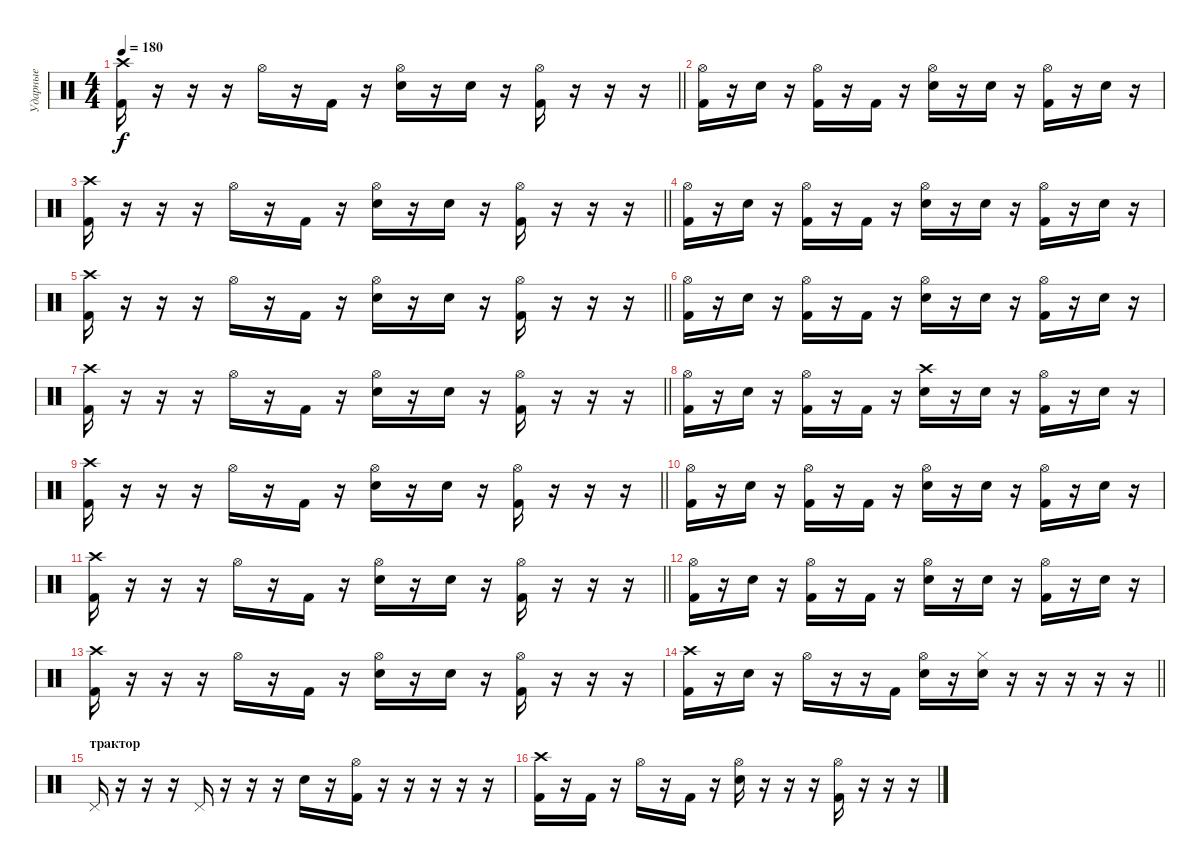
\track ("Ударные" "Ударные") {instrument percussion}
\staff {score}
\articulation defaults
\ts (4 4)
\tempo 180
\clef neutral
\barLineRight lightlight
\ks c
("Crash high (hit)" "Kick (hit) 2").16{dy f} r.16 r.16 r.16 "Hi-Hat (open)".16 r.16 "Kick (hit) 2".16 r.16 ("Hi-Hat (open)" "Electric Snare (hit)").16 r.16 "Electric Snare (hit)".16 r.16 ("Hi-Hat (open)" "Kick (hit) 2").16 r.16 r.16 r.16 |
("Hi-Hat (open)" "Kick (hit) 2").16 r.16 "Electric Snare (hit)".16 r.16 ("Hi-Hat (open)" "Kick (hit) 2").16 r.16 "Kick (hit) 2".16 r.16 ("Hi-Hat (open)" "Electric Snare (hit)").16 r.16 "Electric Snare (hit)".16 r.16 ("Hi-Hat (open)" "Kick (hit) 2").16 r.16 "Electric Snare (hit)".16 r.16 |
\barLineRight lightlight
("Crash high (hit)" "Kick (hit) 2").16 r.16 r.16 r.16 "Hi-Hat (open)".16 r.16 "Kick (hit) 2".16 r.16 ("Hi-Hat (open)" "Electric Snare (hit)").16 r.16 "Electric Snare (hit)".16 r.16 ("Hi-Hat (open)" "Kick (hit) 2").16 r.16 r.16 r.16 |
("Hi-Hat (open)" "Kick (hit) 2").16 r.16 "Electric Snare (hit)".16 r.16 ("Hi-Hat (open)" "Kick (hit) 2").16 r.16 "Kick (hit) 2".16 r.16 ("Hi-Hat (open)" "Electric Snare (hit)").16 r.16 "Electric Snare (hit)".16 r.16 ("Hi-Hat (open)" "Kick (hit) 2").16 r.16 "Electric Snare (hit)".16 r.16 |
\barLineRight lightlight
("Crash high (hit)" "Kick (hit) 2").16 r.16 r.16 r.16 "Hi-Hat (open)".16 r.16 "Kick (hit) 2".16 r.16 ("Hi-Hat (open)" "Electric Snare (hit)").16 r.16 "Electric Snare (hit)".16 r.16 ("Hi-Hat (open)" "Kick (hit) 2").16 r.16 r.16 r.16 |
("Hi-Hat (open)" "Kick (hit) 2").16 r.16 "Electric Snare (hit)".16 r.16 ("Hi-Hat (open)" "Kick (hit) 2").16 r.16 "Kick (hit) 2".16 r.16 ("Hi-Hat (open)" "Electric Snare (hit)").16 r.16 "Electric Snare (hit)".16 r.16 ("Hi-Hat (open)" "Kick (hit) 2").16 r.16 "Electric Snare (hit)".16 r.16 |
\barLineRight lightlight
("Crash high (hit)" "Kick (hit) 2").16 r.16 r.16 r.16 "Hi-Hat (open)".16 r.16 "Kick (hit) 2".16 r.16 ("Hi-Hat (open)" "Electric Snare (hit)").16 r.16 "Electric Snare (hit)".16 r.16 ("Hi-Hat (open)" "Kick (hit) 2").16 r.16 r.16 r.16 |
("Hi-Hat (open)" "Kick (hit) 2").16 r.16 "Electric Snare (hit)".16 r.16 ("Hi-Hat (open)" "Kick (hit) 2").16 r.16 "Kick (hit) 2".16 r.16 ("Crash high (hit)" "Electric Snare (hit)").16 r.16 "Electric Snare (hit)".16 r.16 ("Hi-Hat (open)" "Kick (hit) 2").16 r.16 "Electric Snare (hit)".16 r.16 |
\barLineRight lightlight
("Crash high (hit)" "Kick (hit) 2").16 r.16 r.16 r.16 "Hi-Hat (open)".16 r.16 "Kick (hit) 2".16 r.16 ("Hi-Hat (open)" "Electric Snare (hit)").16 r.16 "Electric Snare (hit)".16 r.16 ("Hi-Hat (open)" "Kick (hit) 2").16 r.16 r.16 r.16 |
("Hi-Hat (open)" "Kick (hit) 2").16 r.16 "Electric Snare (hit)".16 r.16 ("Hi-Hat (open)" "Kick (hit) 2").16 r.16 "Kick (hit) 2".16 r.16 ("Hi-Hat (open)" "Electric Snare (hit)").16 r.16 "Electric Snare (hit)".16 r.16 ("Hi-Hat (open)" "Kick (hit) 2").16 r.16 "Electric Snare (hit)".16 r.16 |
\barLineRight lightlight
("Crash high (hit)" "Kick (hit) 2").16 r.16 r.16 r.16 "Hi-Hat (open)".16 r.16 "Kick (hit) 2".16 r.16 ("Hi-Hat (open)" "Electric Snare (hit)").16 r.16 "Electric Snare (hit)".16 r.16 ("Hi-Hat (open)" "Kick (hit) 2").16 r.16 r.16 r.16 |
("Hi-Hat (open)" "Kick (hit) 2").16 r.16 "Electric Snare (hit)".16 r.16 ("Hi-Hat (open)" "Kick (hit) 2").16 r.16 "Kick (hit) 2".16 r.16 ("Hi-Hat (open)" "Electric Snare (hit)").16 r.16 "Electric Snare (hit)".16 r.16 ("Hi-Hat (open)" "Kick (hit) 2").16 r.16 "Electric Snare (hit)".16 r.16 |
("Crash high (hit)" "Kick (hit) 2").16 r.16 r.16 r.16 "Hi-Hat (open)".16 r.16 "Kick (hit) 2".16 r.16 ("Hi-Hat (open)" "Electric Snare (hit)").16 r.16 "Electric Snare (hit)".16 r.16 ("Hi-Hat (open)" "Kick (hit) 2").16 r.16 r.16 r.16 |
\barLineRight lightlight
("Crash high (hit)" "Kick (hit) 2").16 r.16 "Electric Snare (hit)".16 r.16 "Hi-Hat (open)".16 r.16 r.16 "Kick (hit) 2".16 ("Hi-Hat (open)" "Electric Snare (hit)").16 r.16 ("Hi-Hat (closed)" "Electric Snare (hit)").16 r.16 r.16 r.16 r.16 r.16 |
\section ("" "трактор")
"Pedal Hi-Hat (hit)".16 r.16 r.16 r.16 "Pedal Hi-Hat (hit)".16 r.16 r.16 r.16 "Electric Snare (hit)".16 r.16 ("Hi-Hat (open)" "Kick (hit) 2").16 r.16 r.16 r.16 r.16 r.16 |
("Crash high (hit)" "Kick (hit) 2").16 r.16 "Kick (hit) 2".16 r.16 "Hi-Hat (open)".16 r.16 "Kick (hit) 2".16 r.16 ("Hi-Hat (open)" "Electric Snare (hit)").16 r.16 r.16 r.16 ("Hi-Hat (open)" "Kick (hit) 2").16 r.16 r.16 r.16
